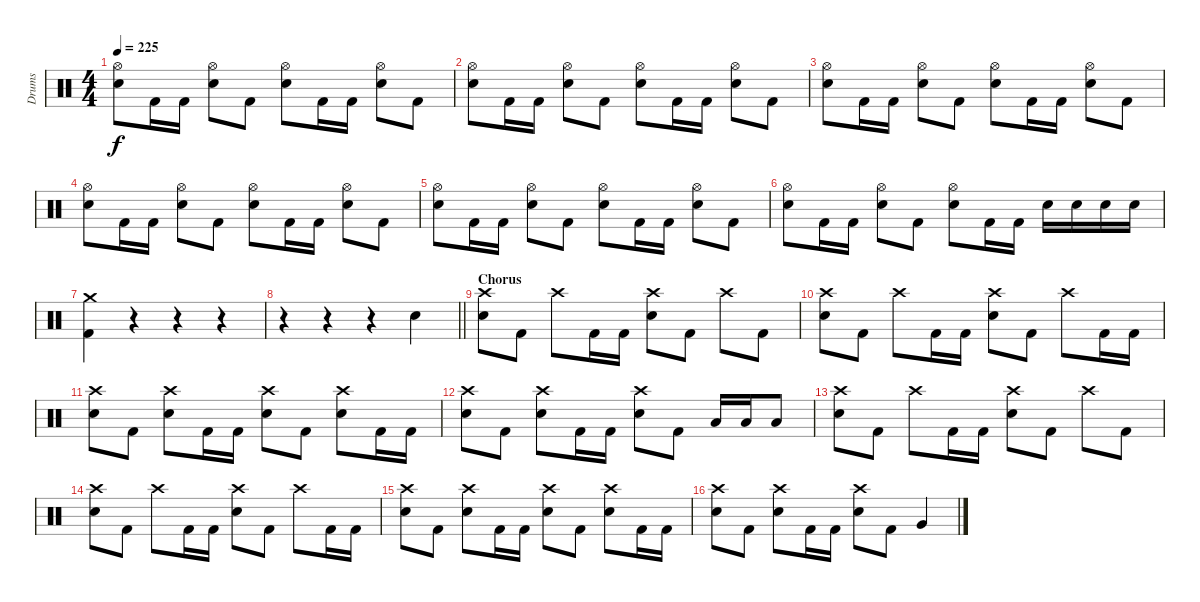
\track ("Drums" "Drums") {instrument percussion}
\staff {score}
\articulation defaults
\ts (4 4)
\tempo 225
\clef neutral
\ks c
("Hi-Hat (open)" "Electric Snare (hit)").8{dy f} "Kick (hit) 2".16 "Kick (hit) 2".16 ("Hi-Hat (open)" "Electric Snare (hit)").8 "Kick (hit) 2".8 ("Hi-Hat (open)" "Electric Snare (hit)").8 "Kick (hit) 2".16 "Kick (hit) 2".16 ("Hi-Hat (open)" "Electric Snare (hit)").8 "Kick (hit) 2".8 |
("Hi-Hat (open)" "Electric Snare (hit)").8 "Kick (hit) 2".16 "Kick (hit) 2".16 ("Hi-Hat (open)" "Electric Snare (hit)").8 "Kick (hit) 2".8 ("Hi-Hat (open)" "Electric Snare (hit)").8 "Kick (hit) 2".16 "Kick (hit) 2".16 ("Hi-Hat (open)" "Electric Snare (hit)").8 "Kick (hit) 2".8 |
("Hi-Hat (open)" "Electric Snare (hit)").8 "Kick (hit) 2".16 "Kick (hit) 2".16 ("Hi-Hat (open)" "Electric Snare (hit)").8 "Kick (hit) 2".8 ("Hi-Hat (open)" "Electric Snare (hit)").8 "Kick (hit) 2".16 "Kick (hit) 2".16 ("Hi-Hat (open)" "Electric Snare (hit)").8 "Kick (hit) 2".8 |
("Hi-Hat (open)" "Electric Snare (hit)").8 "Kick (hit) 2".16 "Kick (hit) 2".16 ("Hi-Hat (open)" "Electric Snare (hit)").8 "Kick (hit) 2".8 ("Hi-Hat (open)" "Electric Snare (hit)").8 "Kick (hit) 2".16 "Kick (hit) 2".16 ("Hi-Hat (open)" "Electric Snare (hit)").8 "Kick (hit) 2".8 |
("Hi-Hat (open)" "Electric Snare (hit)").8 "Kick (hit) 2".16 "Kick (hit) 2".16 ("Hi-Hat (open)" "Electric Snare (hit)").8 "Kick (hit) 2".8 ("Hi-Hat (open)" "Electric Snare (hit)").8 "Kick (hit) 2".16 "Kick (hit) 2".16 ("Hi-Hat (open)" "Electric Snare (hit)").8 "Kick (hit) 2".8 |
("Hi-Hat (open)" "Electric Snare (hit)").8 "Kick (hit) 2".16 "Kick (hit) 2".16 ("Hi-Hat (open)" "Electric Snare (hit)").8 "Kick (hit) 2".8 ("Hi-Hat (open)" "Electric Snare (hit)").8 "Kick (hit) 2".16 "Kick (hit) 2".16 "Electric Snare (hit)".16 "Electric Snare (hit)".16 "Electric Snare (hit)".16 "Electric Snare (hit)".16 |
("Crash medium (hit)" "Kick (hit) 2").4 r.4 r.4 r.4 |
\barLineRight lightlight
r.4 r.4 r.4 "Electric Snare (hit)".4 |
\section ("" "Chorus")
("Crash high (hit)" "Electric Snare (hit)").8 "Kick (hit) 2".8 "Crash high (hit)".8 "Kick (hit) 2".16 "Kick (hit) 2".16 ("Crash high (hit)" "Electric Snare (hit)").8 "Kick (hit) 2".8 "Crash high (hit)".8 "Kick (hit) 2".8 |
("Crash high (hit)" "Electric Snare (hit)").8 "Kick (hit) 2".8 "Crash high (hit)".8 "Kick (hit) 2".16 "Kick (hit) 2".16 ("Crash high (hit)" "Electric Snare (hit)").8 "Kick (hit) 2".8 "Crash high (hit)".8 "Kick (hit) 2".16 "Kick (hit) 2".16 |
("Crash high (hit)" "Electric Snare (hit)").8 "Kick (hit) 2".8 ("Crash high (hit)" "Electric Snare (hit)").8 "Kick (hit) 2".16 "Kick (hit) 2".16 ("Crash high (hit)" "Electric Snare (hit)").8 "Kick (hit) 2".8 ("Crash high (hit)" "Electric Snare (hit)").8 "Kick (hit) 2".16 "Kick (hit) 2".16 |
("Crash high (hit)" "Electric Snare (hit)").8 "Kick (hit) 2".8 ("Crash high (hit)" "Electric Snare (hit)").8 "Kick (hit) 2".16 "Kick (hit) 2".16 ("Crash high (hit)" "Electric Snare (hit)").8 "Kick (hit) 2".8 "Low Tom (hit)".16 "Low Tom (hit)".16 "Low Tom (hit)".8 |
("Crash high (hit)" "Electric Snare (hit)").8 "Kick (hit) 2".8 "Crash high (hit)".8 "Kick (hit) 2".16 "Kick (hit) 2".16 ("Crash high (hit)" "Electric Snare (hit)").8 "Kick (hit) 2".8 "Crash high (hit)".8 "Kick (hit) 2".8 |
("Crash high (hit)" "Electric Snare (hit)").8 "Kick (hit) 2".8 "Crash high (hit)".8 "Kick (hit) 2".16 "Kick (hit) 2".16 ("Crash high (hit)" "Electric Snare (hit)").8 "Kick (hit) 2".8 "Crash high (hit)".8 "Kick (hit) 2".16 "Kick (hit) 2".16 |
("Crash high (hit)" "Electric Snare (hit)").8 "Kick (hit) 2".8 ("Crash high (hit)" "Electric Snare (hit)").8 "Kick (hit) 2".16 "Kick (hit) 2".16 ("Crash high (hit)" "Electric Snare (hit)").8 "Kick (hit) 2".8 ("Crash high (hit)" "Electric Snare (hit)").8 "Kick (hit) 2".16 "Kick (hit) 2".16 |
("Crash high (hit)" "Electric Snare (hit)").8 "Kick (hit) 2".8 ("Crash high (hit)" "Electric Snare (hit)").8 "Kick (hit) 2".16 "Kick (hit) 2".16 ("Crash high (hit)" "Electric Snare (hit)").8 "Kick (hit) 2".8 "Very Low Tom (hit)".4
